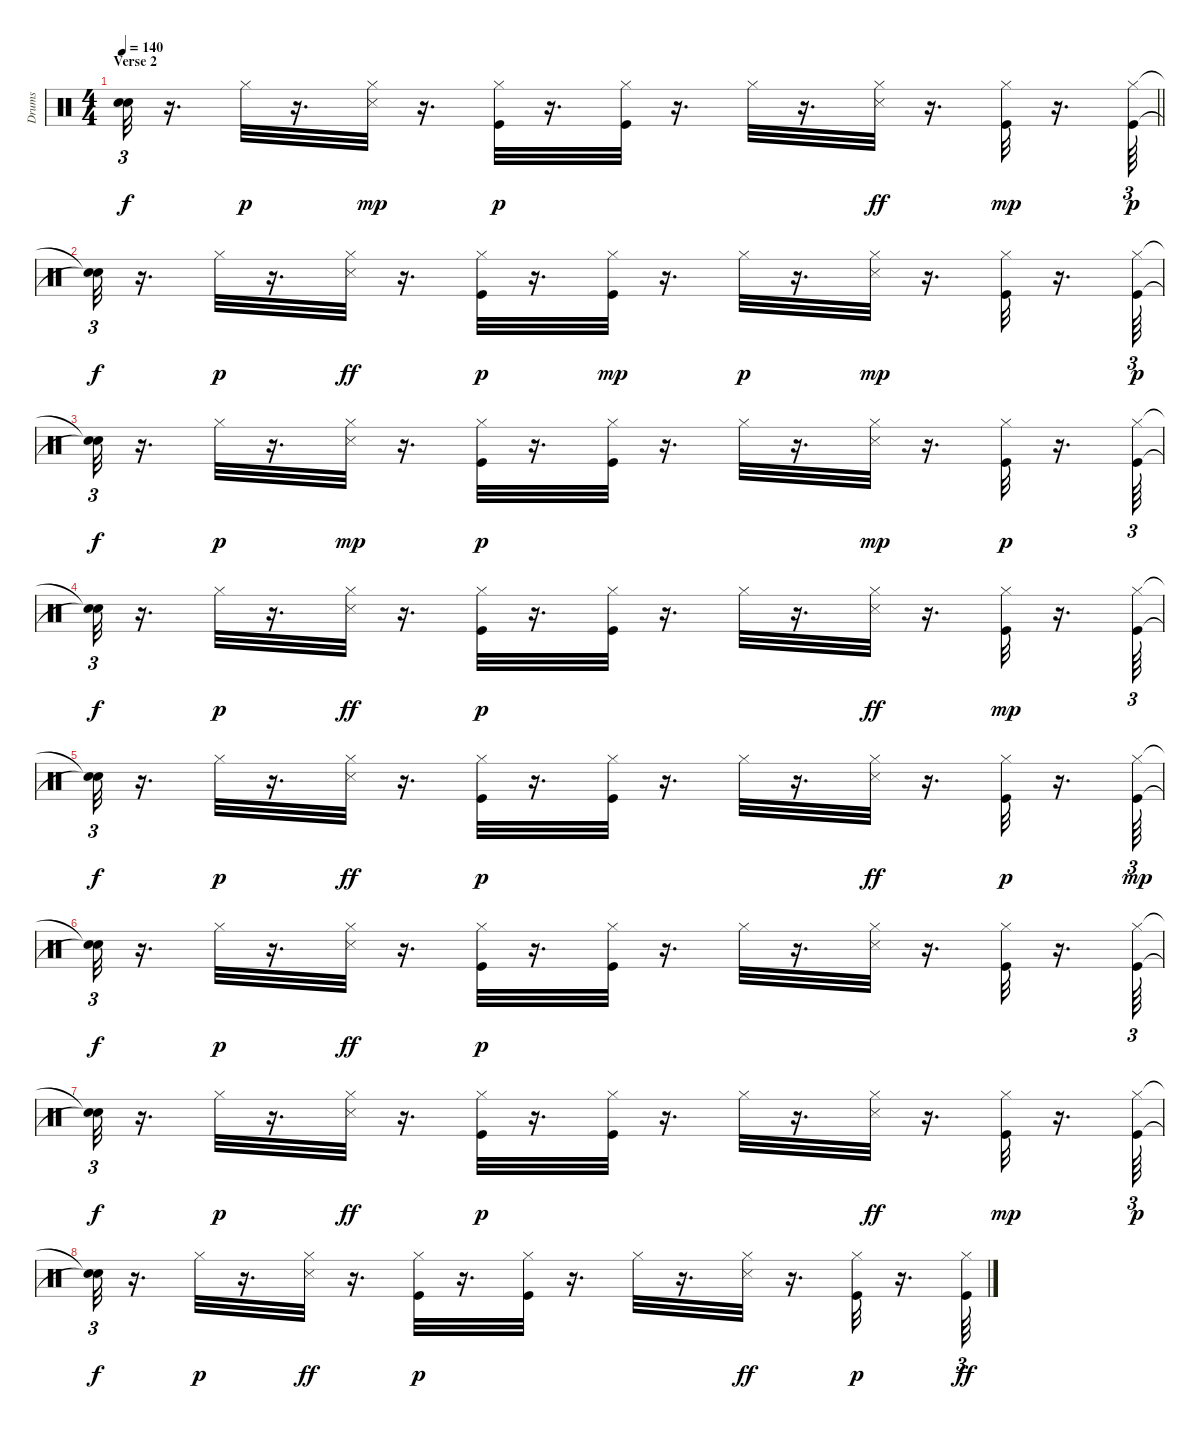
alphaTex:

\track ("Drums" "Drums") {instrument percussion}
\staff {score}
\articulation defaults
\ts (4 4)
\section ("" "Verse 2")
\tempo 140
\clef neutral
\barLineRight lightlight
\ks c
("Snare (hit)"{t} "Snare (hit)"{t}).32{tu (3 2) dy f} r.16{d} "Hi-Hat (closed)".32{dy p} r.16{d} ("Hi-Hat (closed)" "Snare (side stick) 3").32{dy mp} r.16{d} ("Kick (hit)" "Hi-Hat (closed)").32{dy p} r.16{d} ("Kick (hit)" "Hi-Hat (closed)").32 r.16{d} "Hi-Hat (closed)".32 r.16{d} ("Hi-Hat (closed)" "Snare (side stick) 3").32{dy ff} r.16{d} ("Hi-Hat (closed)" "Kick (hit)").32{dy mp} r.16{d} ("Hi-Hat (closed)" "Kick (hit)").64{tu (3 2) dy p} |
\section ("" "")
("Snare (hit)"{t} "Snare (hit)"{t}).32{tu (3 2) dy f} r.16{d} "Hi-Hat (closed)".32{dy p} r.16{d} ("Hi-Hat (closed)" "Snare (side stick) 3").32{dy ff} r.16{d} ("Hi-Hat (closed)" "Kick (hit)").32{dy p} r.16{d} ("Hi-Hat (closed)" "Kick (hit)").32{dy mp} r.16{d} "Hi-Hat (closed)".32{dy p} r.16{d} ("Snare (side stick) 3" "Hi-Hat (closed)").32{dy mp} r.16{d} ("Kick (hit)" "Hi-Hat (closed)").32 r.16{d} ("Kick (hit)" "Hi-Hat (closed)").64{tu (3 2) dy p} |
("Snare (hit)"{t} "Snare (hit)"{t}).32{tu (3 2) dy f} r.16{d} "Hi-Hat (closed)".32{dy p} r.16{d} ("Snare (side stick) 3" "Hi-Hat (closed)").32{dy mp} r.16{d} ("Kick (hit)" "Hi-Hat (closed)").32{dy p} r.16{d} ("Hi-Hat (closed)" "Kick (hit)").32 r.16{d} "Hi-Hat (closed)".32 r.16{d} ("Snare (side stick) 3" "Hi-Hat (closed)").32{dy mp} r.16{d} ("Hi-Hat (closed)" "Kick (hit)").32{dy p} r.16{d} ("Hi-Hat (closed)" "Kick (hit)").64{tu (3 2)} |
("Snare (hit)"{t} "Snare (hit)"{t}).32{tu (3 2) dy f} r.16{d} "Hi-Hat (closed)".32{dy p} r.16{d} ("Hi-Hat (closed)" "Snare (side stick) 3").32{dy ff} r.16{d} ("Hi-Hat (closed)" "Kick (hit)").32{dy p} r.16{d} ("Hi-Hat (closed)" "Kick (hit)").32 r.16{d} "Hi-Hat (closed)".32 r.16{d} ("Hi-Hat (closed)" "Snare (side stick) 3").32{dy ff} r.16{d} ("Hi-Hat (closed)" "Kick (hit)").32{dy mp} r.16{d} ("Hi-Hat (closed)" "Kick (hit)").64{tu (3 2)} |
("Snare (hit)"{t} "Snare (hit)"{t}).32{tu (3 2) dy f} r.16{d} "Hi-Hat (closed)".32{dy p} r.16{d} ("Hi-Hat (closed)" "Snare (side stick) 3").32{dy ff} r.16{d} ("Hi-Hat (closed)" "Kick (hit)").32{dy p} r.16{d} ("Hi-Hat (closed)" "Kick (hit)").32 r.16{d} "Hi-Hat (closed)".32 r.16{d} ("Hi-Hat (closed)" "Snare (side stick) 3").32{dy ff} r.16{d} ("Hi-Hat (closed)" "Kick (hit)").32{dy p} r.16{d} ("Hi-Hat (closed)" "Kick (hit)").64{tu (3 2) dy mp} |
("Snare (hit)"{t} "Snare (hit)"{t}).32{tu (3 2) dy f} r.16{d} "Hi-Hat (closed)".32{dy p} r.16{d} ("Hi-Hat (closed)" "Snare (side stick) 3").32{dy ff} r.16{d} ("Hi-Hat (closed)" "Kick (hit)").32{dy p} r.16{d} ("Hi-Hat (closed)" "Kick (hit)").32 r.16{d} "Hi-Hat (closed)".32 r.16{d} ("Snare (side stick) 3" "Hi-Hat (closed)").32 r.16{d} ("Kick (hit)" "Hi-Hat (closed)").32 r.16{d} ("Kick (hit)" "Hi-Hat (closed)").64{tu (3 2)} |
("Snare (hit)"{t} "Snare (hit)"{t}).32{tu (3 2) dy f} r.16{d} "Hi-Hat (closed)".32{dy p} r.16{d} ("Hi-Hat (closed)" "Snare (side stick) 3").32{dy ff} r.16{d} ("Hi-Hat (closed)" "Kick (hit)").32{dy p} r.16{d} ("Hi-Hat (closed)" "Kick (hit)").32 r.16{d} "Hi-Hat (closed)".32 r.16{d} ("Hi-Hat (closed)" "Snare (side stick) 3").32{dy ff} r.16{d} ("Hi-Hat (closed)" "Kick (hit)").32{dy mp} r.16{d} ("Hi-Hat (closed)" "Kick (hit)").64{tu (3 2) dy p} |
("Snare (hit)"{t} "Snare (hit)"{t}).32{tu (3 2) dy f} r.16{d} "Hi-Hat (closed)".32{dy p} r.16{d} ("Hi-Hat (closed)" "Snare (side stick) 3").32{dy ff} r.16{d} ("Kick (hit)" "Hi-Hat (closed)").32{dy p} r.16{d} ("Kick (hit)" "Hi-Hat (closed)").32 r.16{d} "Hi-Hat (closed)".32 r.16{d} ("Hi-Hat (closed)" "Snare (side stick) 3").32{dy ff} r.16{d} ("Hi-Hat (closed)" "Kick (hit)").32{dy p} r.16{d} ("Hi-Hat (closed)" "Kick (hit)").64{tu (3 2) dy ff}
